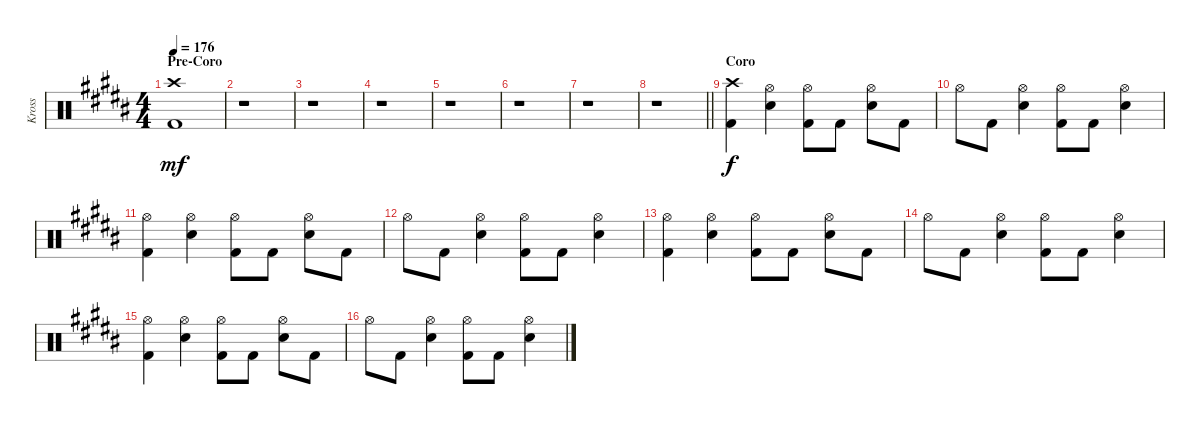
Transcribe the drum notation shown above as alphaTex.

\track ("Kross" "Kross") {instrument percussion}
\staff {score}
\articulation defaults
\ts (4 4)
\section ("" "Pre-Coro")
\tempo 176
\clef neutral
\ks b
("Crash high (hit)" "Kick (hit) 2").1{dy mf} |
r.1 |
r.1 |
r.1 |
r.1 |
r.1 |
r.1 |
\barLineRight lightlight
r.1 |
\section ("" "Coro")
("Crash high (hit)" "Kick (hit) 2").4{dy f} ("Hi-Hat (open)" "Electric Snare (hit)").4 ("Hi-Hat (open)" "Kick (hit) 2").8 "Kick (hit) 2".8 ("Hi-Hat (open)" "Electric Snare (hit)").8 "Kick (hit) 2".8 |
"Hi-Hat (open)".8 "Kick (hit) 2".8 ("Hi-Hat (open)" "Electric Snare (hit)").4 ("Hi-Hat (open)" "Kick (hit) 2").8 "Kick (hit) 2".8 ("Hi-Hat (open)" "Electric Snare (hit)").4 |
("Hi-Hat (open)" "Kick (hit) 2").4 ("Hi-Hat (open)" "Electric Snare (hit)").4 ("Hi-Hat (open)" "Kick (hit) 2").8 "Kick (hit) 2".8 ("Hi-Hat (open)" "Electric Snare (hit)").8 "Kick (hit) 2".8 |
"Hi-Hat (open)".8 "Kick (hit) 2".8 ("Hi-Hat (open)" "Electric Snare (hit)").4 ("Hi-Hat (open)" "Kick (hit) 2").8 "Kick (hit) 2".8 ("Hi-Hat (open)" "Electric Snare (hit)").4 |
("Hi-Hat (open)" "Kick (hit) 2").4 ("Hi-Hat (open)" "Electric Snare (hit)").4 ("Hi-Hat (open)" "Kick (hit) 2").8 "Kick (hit) 2".8 ("Hi-Hat (open)" "Electric Snare (hit)").8 "Kick (hit) 2".8 |
"Hi-Hat (open)".8 "Kick (hit) 2".8 ("Hi-Hat (open)" "Electric Snare (hit)").4 ("Hi-Hat (open)" "Kick (hit) 2").8 "Kick (hit) 2".8 ("Hi-Hat (open)" "Electric Snare (hit)").4 |
("Hi-Hat (open)" "Kick (hit) 2").4 ("Hi-Hat (open)" "Electric Snare (hit)").4 ("Hi-Hat (open)" "Kick (hit) 2").8 "Kick (hit) 2".8 ("Hi-Hat (open)" "Electric Snare (hit)").8 "Kick (hit) 2".8 |
"Hi-Hat (open)".8 "Kick (hit) 2".8 ("Hi-Hat (open)" "Electric Snare (hit)").4 ("Hi-Hat (open)" "Kick (hit) 2").8 "Kick (hit) 2".8 ("Hi-Hat (open)" "Electric Snare (hit)").4
